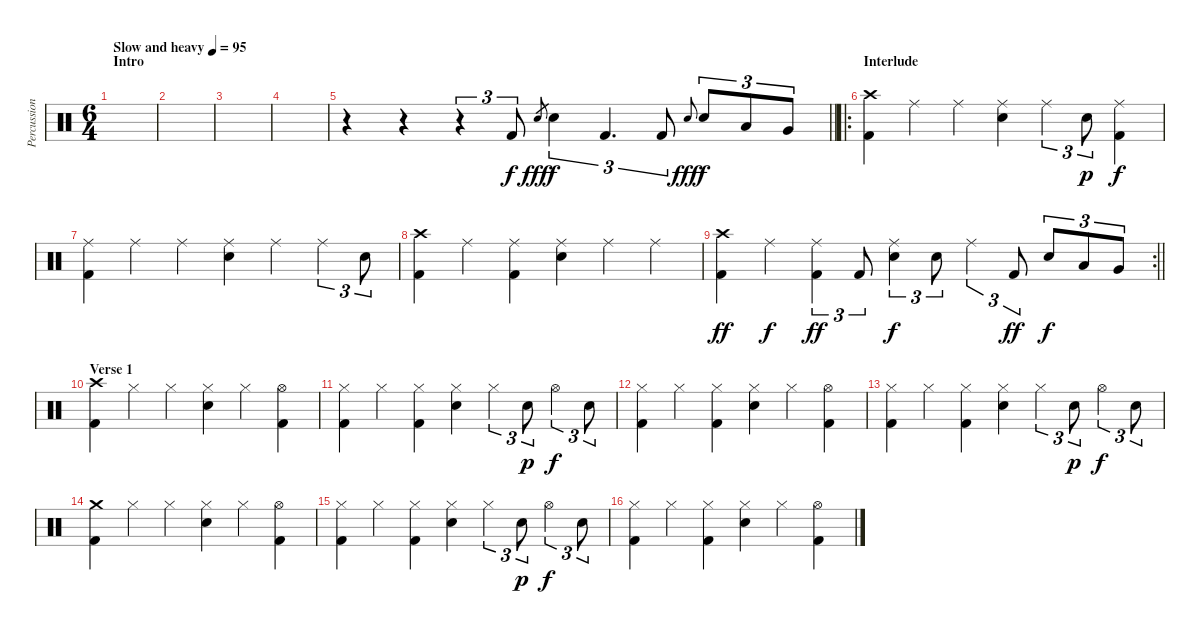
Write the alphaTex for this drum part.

\track ("Percussion" "Percussion") {instrument percussion}
\staff {score}
\articulation defaults
\ts (6 4)
\section ("" "Intro")
\tempo (95 "Slow and heavy")
\clef neutral
\ks c
|
|
|
|
\barLineRight lightlight
r.4 r.4 r.4{tu (3 2)} "Kick (hit) 2".8{tu (3 2)} "Snare (hit) 2".8{gr dy fff} "Snare (hit) 2".4{tu (3 2) dy f} "Kick (hit) 2".4{d tu (3 2)} "Kick (hit) 2".8{tu (3 2)} "Snare (hit) 2".8{gr onbeat dy fff} "Snare (hit) 2".8{tu (3 2) dy f} "Low Tom (hit)".8{tu (3 2)} "Very Low Tom (hit)".8{tu (3 2)} |
\ro
\section ("" "Interlude")
("Kick (hit) 2" "Crash high (hit)").4 "Ride (middle)".4 "Ride (middle)".4 ("Ride (middle)" "Snare (hit) 2").4 "Ride (middle)".4{tu (3 2)} "Snare (hit) 2".8{tu (3 2) dy p} ("Ride (middle)" "Kick (hit) 2").4{dy f} |
("Kick (hit) 2" "Ride (middle)").4 "Ride (middle)".4 "Ride (middle)".4 ("Ride (middle)" "Snare (hit) 2").4 "Ride (middle)".4 "Ride (middle)".4{tu (3 2)} "Snare (hit) 2".8{tu (3 2)} |
("Kick (hit) 2" "Crash high (hit)").4 "Ride (middle)".4 ("Ride (middle)" "Kick (hit) 2").4 ("Ride (middle)" "Snare (hit) 2").4 "Ride (middle)".4 "Ride (middle)".4 |
\rc 2
\barLineRight lightlight
("Kick (hit) 2" "Crash high (hit)").4{dy ff} "Ride (middle)".4{dy f} ("Ride (middle)" "Kick (hit) 2").4{tu (3 2) dy ff} "Kick (hit) 2".8{tu (3 2)} ("Ride (middle)" "Snare (hit) 2").4{tu (3 2) dy f} "Snare (hit) 2".8{tu (3 2)} "Ride (middle)".4{tu (3 2)} "Kick (hit) 2".8{tu (3 2) dy ff} "Snare (hit) 2".8{tu (3 2) dy f} "Low Tom (hit)".8{tu (3 2)} "Very Low Tom (hit)".8{tu (3 2)} |
\section ("" "Verse 1")
("Kick (hit) 2" "Crash high (hit)").4 "Hi-Hat (closed)".4 "Hi-Hat (closed)".4 ("Hi-Hat (closed)" "Snare (hit) 2").4 "Hi-Hat (closed)".4 ("Hi-Hat (open)" "Kick (hit) 2").4 |
("Kick (hit) 2" "Hi-Hat (closed)").4 "Hi-Hat (closed)".4 ("Hi-Hat (closed)" "Kick (hit) 2").4 ("Hi-Hat (closed)" "Snare (hit) 2").4 "Hi-Hat (closed)".4{tu (3 2)} "Snare (hit) 2".8{tu (3 2) dy p} "Hi-Hat (open)".4{tu (3 2) dy f} "Snare (hit) 2".8{tu (3 2)} |
("Kick (hit) 2" "Hi-Hat (closed)").4 "Hi-Hat (closed)".4 ("Hi-Hat (closed)" "Kick (hit) 2").4 ("Hi-Hat (closed)" "Snare (hit) 2").4 "Hi-Hat (closed)".4 ("Hi-Hat (open)" "Kick (hit) 2").4 |
("Kick (hit) 2" "Hi-Hat (closed)").4 "Hi-Hat (closed)".4 ("Hi-Hat (closed)" "Kick (hit) 2").4 ("Hi-Hat (closed)" "Snare (hit) 2").4 "Hi-Hat (closed)".4{tu (3 2)} "Snare (hit) 2".8{tu (3 2) dy p} "Hi-Hat (open)".4{tu (3 2) dy f} "Snare (hit) 2".8{tu (3 2)} |
("Kick (hit) 2" "Crash medium (hit)").4 "Hi-Hat (closed)".4 "Hi-Hat (closed)".4 ("Hi-Hat (closed)" "Snare (hit) 2").4 "Hi-Hat (closed)".4 ("Hi-Hat (open)" "Kick (hit) 2").4 |
("Kick (hit) 2" "Hi-Hat (closed)").4 "Hi-Hat (closed)".4 ("Hi-Hat (closed)" "Kick (hit) 2").4 ("Hi-Hat (closed)" "Snare (hit) 2").4 "Hi-Hat (closed)".4{tu (3 2)} "Snare (hit) 2".8{tu (3 2) dy p} "Hi-Hat (open)".4{tu (3 2) dy f} "Snare (hit) 2".8{tu (3 2)} |
("Kick (hit) 2" "Hi-Hat (closed)").4 "Hi-Hat (closed)".4 ("Hi-Hat (closed)" "Kick (hit) 2").4 ("Hi-Hat (closed)" "Snare (hit) 2").4 "Hi-Hat (closed)".4 ("Hi-Hat (open)" "Kick (hit) 2").4
